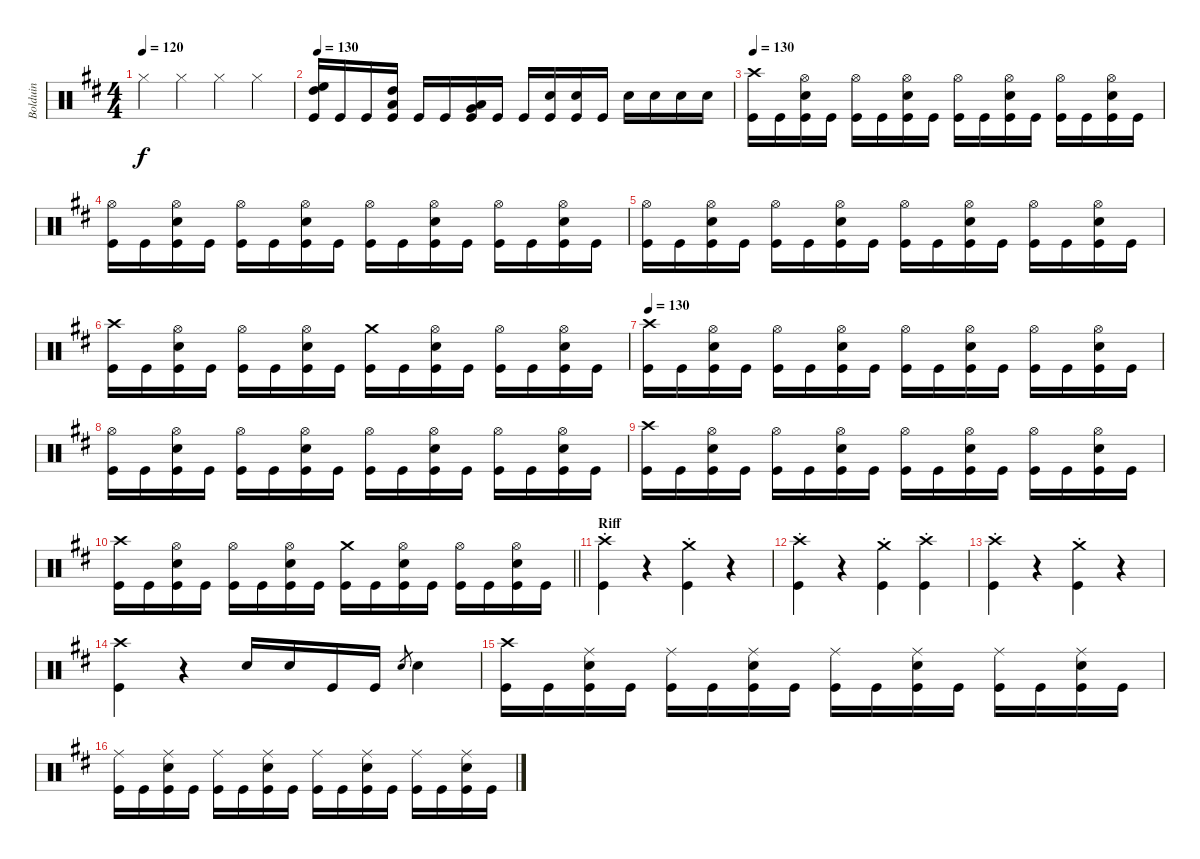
\track ("Bolduin" "Bolduin") {instrument percussion}
\staff {score}
\articulation defaults
\ts (4 4)
\tempo 120
\clef neutral
\ks bminor "Hi-Hat (closed)".4{dy f} "Hi-Hat (closed)".4 "Hi-Hat (closed)".4 "Hi-Hat (closed)".4
|
\tempo 130
("High Tom (hit)" "High Floor Tom (hit)" "Kick (hit)").16 "Kick (hit)".16 "Kick (hit)".16 ("High Tom (hit)" "Low Tom (hit)" "Kick (hit)").16 "Kick (hit)".16 "Kick (hit)".16 ("Very Low Tom (hit)" "Low Tom (hit)" "Kick (hit)").16 "Kick (hit)".16 "Kick (hit)".16 ("Kick (hit)" "Snare (hit) 2").16 ("Snare (hit) 2" "Kick (hit)").16 "Kick (hit)".16 "Snare (hit) 2".16 "Snare (hit) 2".16 "Snare (hit) 2".16 "Snare (hit) 2".16 |
\tempo 130
("Kick (hit)" "Crash high (hit)").16 "Kick (hit)".16 ("Kick (hit)" "Hi-Hat (open)" "Snare (hit) 2").16 "Kick (hit)".16 ("Kick (hit)" "Hi-Hat (open)").16 "Kick (hit)".16 ("Kick (hit)" "Hi-Hat (open)" "Snare (hit) 2").16 "Kick (hit)".16 ("Kick (hit)" "Hi-Hat (open)").16 "Kick (hit)".16 ("Kick (hit)" "Hi-Hat (open)" "Snare (hit) 2").16 "Kick (hit)".16 ("Kick (hit)" "Hi-Hat (open)").16 "Kick (hit)".16 ("Kick (hit)" "Hi-Hat (open)" "Snare (hit) 2").16 "Kick (hit)".16 |
("Kick (hit)" "Hi-Hat (open)").16 "Kick (hit)".16 ("Kick (hit)" "Hi-Hat (open)" "Snare (hit) 2").16 "Kick (hit)".16 ("Kick (hit)" "Hi-Hat (open)").16 "Kick (hit)".16 ("Kick (hit)" "Hi-Hat (open)" "Snare (hit) 2").16 "Kick (hit)".16 ("Kick (hit)" "Hi-Hat (open)").16 "Kick (hit)".16 ("Kick (hit)" "Hi-Hat (open)" "Snare (hit) 2").16 "Kick (hit)".16 ("Kick (hit)" "Hi-Hat (open)").16 "Kick (hit)".16 ("Kick (hit)" "Hi-Hat (open)" "Snare (hit) 2").16 "Kick (hit)".16 |
("Kick (hit)" "Hi-Hat (open)").16 "Kick (hit)".16 ("Kick (hit)" "Hi-Hat (open)" "Snare (hit) 2").16 "Kick (hit)".16 ("Kick (hit)" "Hi-Hat (open)").16 "Kick (hit)".16 ("Kick (hit)" "Hi-Hat (open)" "Snare (hit) 2").16 "Kick (hit)".16 ("Kick (hit)" "Hi-Hat (open)").16 "Kick (hit)".16 ("Kick (hit)" "Hi-Hat (open)" "Snare (hit) 2").16 "Kick (hit)".16 ("Kick (hit)" "Hi-Hat (open)").16 "Kick (hit)".16 ("Kick (hit)" "Hi-Hat (open)" "Snare (hit) 2").16 "Kick (hit)".16 |
("Kick (hit)" "Crash high (hit)").16 "Kick (hit)".16 ("Kick (hit)" "Hi-Hat (open)" "Snare (hit) 2").16 "Kick (hit)".16 ("Kick (hit)" "Hi-Hat (open)").16 "Kick (hit)".16 ("Kick (hit)" "Hi-Hat (open)" "Snare (hit) 2").16 "Kick (hit)".16 ("Kick (hit)" "Crash medium (hit)").16 "Kick (hit)".16 ("Kick (hit)" "Hi-Hat (open)" "Snare (hit) 2").16 "Kick (hit)".16 ("Kick (hit)" "Hi-Hat (open)").16 "Kick (hit)".16 ("Kick (hit)" "Hi-Hat (open)" "Snare (hit) 2").16 "Kick (hit)".16 |
\tempo 130
("Kick (hit)" "Crash high (hit)").16 "Kick (hit)".16 ("Kick (hit)" "Hi-Hat (open)" "Snare (hit) 2").16 "Kick (hit)".16 ("Kick (hit)" "Hi-Hat (open)").16 "Kick (hit)".16 ("Kick (hit)" "Hi-Hat (open)" "Snare (hit) 2").16 "Kick (hit)".16 ("Kick (hit)" "Hi-Hat (open)").16 "Kick (hit)".16 ("Kick (hit)" "Hi-Hat (open)" "Snare (hit) 2").16 "Kick (hit)".16 ("Kick (hit)" "Hi-Hat (open)").16 "Kick (hit)".16 ("Kick (hit)" "Hi-Hat (open)" "Snare (hit) 2").16 "Kick (hit)".16 |
("Kick (hit)" "Hi-Hat (open)").16 "Kick (hit)".16 ("Kick (hit)" "Hi-Hat (open)" "Snare (hit) 2").16 "Kick (hit)".16 ("Kick (hit)" "Hi-Hat (open)").16 "Kick (hit)".16 ("Kick (hit)" "Hi-Hat (open)" "Snare (hit) 2").16 "Kick (hit)".16 ("Kick (hit)" "Hi-Hat (open)").16 "Kick (hit)".16 ("Kick (hit)" "Hi-Hat (open)" "Snare (hit) 2").16 "Kick (hit)".16 ("Kick (hit)" "Hi-Hat (open)").16 "Kick (hit)".16 ("Kick (hit)" "Hi-Hat (open)" "Snare (hit) 2").16 "Kick (hit)".16 |
("Kick (hit)" "Crash high (hit)").16 "Kick (hit)".16 ("Kick (hit)" "Hi-Hat (open)" "Snare (hit) 2").16 "Kick (hit)".16 ("Kick (hit)" "Hi-Hat (open)").16 "Kick (hit)".16 ("Kick (hit)" "Hi-Hat (open)" "Snare (hit) 2").16 "Kick (hit)".16 ("Kick (hit)" "Hi-Hat (open)").16 "Kick (hit)".16 ("Kick (hit)" "Hi-Hat (open)" "Snare (hit) 2").16 "Kick (hit)".16 ("Kick (hit)" "Hi-Hat (open)").16 "Kick (hit)".16 ("Kick (hit)" "Hi-Hat (open)" "Snare (hit) 2").16 "Kick (hit)".16 |
\barLineRight lightlight
("Kick (hit)" "Crash high (hit)").16 "Kick (hit)".16 ("Kick (hit)" "Hi-Hat (open)" "Snare (hit) 2").16 "Kick (hit)".16 ("Kick (hit)" "Hi-Hat (open)").16 "Kick (hit)".16 ("Kick (hit)" "Hi-Hat (open)" "Snare (hit) 2").16 "Kick (hit)".16 ("Kick (hit)" "Crash medium (hit)").16 "Kick (hit)".16 ("Kick (hit)" "Hi-Hat (open)" "Snare (hit) 2").16 "Kick (hit)".16 ("Kick (hit)" "Hi-Hat (open)").16 "Kick (hit)".16 ("Kick (hit)" "Hi-Hat (open)" "Snare (hit) 2").16 "Kick (hit)".16 |
\section ("" "Riff")
("Crash high (hit)"{st} "Kick (hit)").4 r.4 ("Kick (hit)" "Crash medium (hit)"{st}).4 r.4 |
("Crash high (hit)"{st} "Kick (hit)").4 r.4 ("Kick (hit)" "Crash medium (hit)"{st}).4 ("Kick (hit)" "Crash high (hit)"{st}).4 |
("Crash high (hit)"{st} "Kick (hit)").4 r.4 ("Kick (hit)" "Crash medium (hit)"{st}).4 r.4 |
("Crash high (hit)" "Kick (hit)").4 r.4 "Snare (hit) 2".16 "Snare (hit) 2".16 "Kick (hit)".16 "Kick (hit)".16 "Snare (hit) 2".8{gr} "Snare (hit) 2".4 |
("Kick (hit)" "Crash high (hit)").16 "Kick (hit)".16 ("Kick (hit)" "Ride (middle)" "Snare (hit) 2").16 "Kick (hit)".16 ("Kick (hit)" "Ride (middle)").16 "Kick (hit)".16 ("Kick (hit)" "Ride (middle)" "Snare (hit) 2").16 "Kick (hit)".16 ("Kick (hit)" "Ride (middle)").16 "Kick (hit)".16 ("Kick (hit)" "Ride (middle)" "Snare (hit) 2").16 "Kick (hit)".16 ("Kick (hit)" "Ride (middle)").16 "Kick (hit)".16 ("Kick (hit)" "Ride (middle)" "Snare (hit) 2").16 "Kick (hit)".16 |
("Kick (hit)" "Ride (middle)").16 "Kick (hit)".16 ("Kick (hit)" "Ride (middle)" "Snare (hit) 2").16 "Kick (hit)".16 ("Kick (hit)" "Ride (middle)").16 "Kick (hit)".16 ("Kick (hit)" "Ride (middle)" "Snare (hit) 2").16 "Kick (hit)".16 ("Kick (hit)" "Ride (middle)").16 "Kick (hit)".16 ("Kick (hit)" "Ride (middle)" "Snare (hit) 2").16 "Kick (hit)".16 ("Kick (hit)" "Ride (middle)").16 "Kick (hit)".16 ("Kick (hit)" "Ride (middle)" "Snare (hit) 2").16 "Kick (hit)".16
